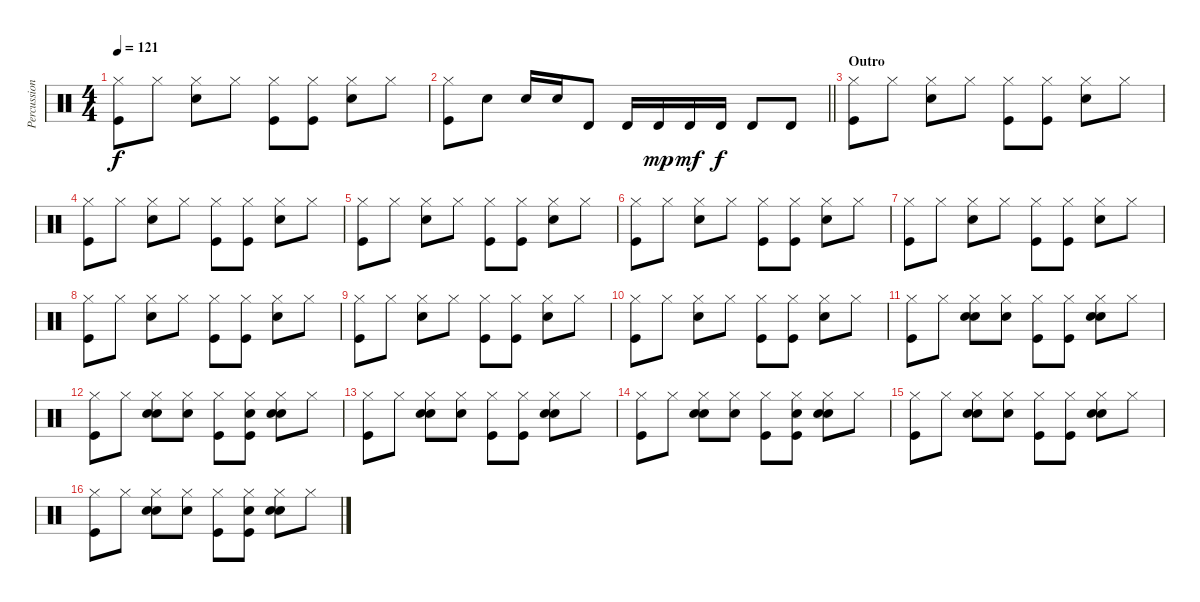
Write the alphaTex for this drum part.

\track ("Percussion" "Percussion") {instrument percussion}
\staff {score}
\articulation defaults
\ts (4 4)
\tempo 121
\clef neutral
\ks c
("Hi-Hat (closed)" "Kick (hit)").8{dy f} "Hi-Hat (closed)".8 ("Hi-Hat (closed)" "Snare (hit) 2").8 "Hi-Hat (closed)".8 ("Hi-Hat (closed)" "Kick (hit)").8 ("Hi-Hat (closed)" "Kick (hit)").8 ("Hi-Hat (closed)" "Snare (hit) 2").8 "Hi-Hat (closed)".8 |
\barLineRight lightlight
("Hi-Hat (closed)" "Kick (hit)").8 "Snare (hit) 2".8 "Snare (hit) 2".16 "Snare (hit) 2".16 "Timbale high (hit)".8 "Timbale high (hit)".16 "Timbale high (hit)".16{dy mp} "Timbale high (hit)".16{dy mf} "Timbale high (hit)".16{dy f} "Timbale high (hit)".8 "Timbale high (hit)".8 |
\section ("" "Outro")
("Hi-Hat (closed)" "Kick (hit)").8 "Hi-Hat (closed)".8 ("Hi-Hat (closed)" "Snare (hit) 2").8 "Hi-Hat (closed)".8 ("Hi-Hat (closed)" "Kick (hit)").8 ("Hi-Hat (closed)" "Kick (hit)").8 ("Hi-Hat (closed)" "Snare (hit) 2").8 "Hi-Hat (closed)".8 |
("Hi-Hat (closed)" "Kick (hit)").8 "Hi-Hat (closed)".8 ("Hi-Hat (closed)" "Snare (hit) 2").8 "Hi-Hat (closed)".8 ("Hi-Hat (closed)" "Kick (hit)").8 ("Hi-Hat (closed)" "Kick (hit)").8 ("Hi-Hat (closed)" "Snare (hit) 2").8 "Hi-Hat (closed)".8 |
("Hi-Hat (closed)" "Kick (hit)").8 "Hi-Hat (closed)".8 ("Hi-Hat (closed)" "Snare (hit) 2").8 "Hi-Hat (closed)".8 ("Hi-Hat (closed)" "Kick (hit)").8 ("Hi-Hat (closed)" "Kick (hit)").8 ("Hi-Hat (closed)" "Snare (hit) 2").8 "Hi-Hat (closed)".8 |
("Hi-Hat (closed)" "Kick (hit)").8 "Hi-Hat (closed)".8 ("Hi-Hat (closed)" "Snare (hit) 2").8 "Hi-Hat (closed)".8 ("Hi-Hat (closed)" "Kick (hit)").8 ("Hi-Hat (closed)" "Kick (hit)").8 ("Hi-Hat (closed)" "Snare (hit) 2").8 "Hi-Hat (closed)".8 |
("Hi-Hat (closed)" "Kick (hit)").8 "Hi-Hat (closed)".8 ("Hi-Hat (closed)" "Snare (hit) 2").8 "Hi-Hat (closed)".8 ("Hi-Hat (closed)" "Kick (hit)").8 ("Hi-Hat (closed)" "Kick (hit)").8 ("Hi-Hat (closed)" "Snare (hit) 2").8 "Hi-Hat (closed)".8 |
("Hi-Hat (closed)" "Kick (hit)").8 "Hi-Hat (closed)".8 ("Hi-Hat (closed)" "Snare (hit) 2").8 "Hi-Hat (closed)".8 ("Hi-Hat (closed)" "Kick (hit)").8 ("Hi-Hat (closed)" "Kick (hit)").8 ("Hi-Hat (closed)" "Snare (hit) 2").8 "Hi-Hat (closed)".8 |
("Hi-Hat (closed)" "Kick (hit)").8 "Hi-Hat (closed)".8 ("Hi-Hat (closed)" "Snare (hit) 2").8 "Hi-Hat (closed)".8 ("Hi-Hat (closed)" "Kick (hit)").8 ("Hi-Hat (closed)" "Kick (hit)").8 ("Hi-Hat (closed)" "Snare (hit) 2").8 "Hi-Hat (closed)".8 |
("Hi-Hat (closed)" "Kick (hit)").8 "Hi-Hat (closed)".8 ("Hi-Hat (closed)" "Snare (hit) 2").8 "Hi-Hat (closed)".8 ("Hi-Hat (closed)" "Kick (hit)").8 ("Hi-Hat (closed)" "Kick (hit)").8 ("Hi-Hat (closed)" "Snare (hit) 2").8 "Hi-Hat (closed)".8 |
("Hi-Hat (closed)" "Kick (hit)").8 "Hi-Hat (closed)".8 ("Hand Clap (hit)" "Hi-Hat (closed)" "Snare (hit) 2").8 ("Hand Clap (hit)" "Hi-Hat (closed)").8 ("Hi-Hat (closed)" "Kick (hit)").8 ("Hi-Hat (closed)" "Kick (hit)").8 ("Hand Clap (hit)" "Hi-Hat (closed)" "Snare (hit) 2").8 "Hi-Hat (closed)".8 |
("Hi-Hat (closed)" "Kick (hit)").8 "Hi-Hat (closed)".8 ("Hand Clap (hit)" "Hi-Hat (closed)" "Snare (hit) 2").8 ("Hand Clap (hit)" "Hi-Hat (closed)").8 ("Hi-Hat (closed)" "Kick (hit)").8 ("Hand Clap (hit)" "Hi-Hat (closed)" "Kick (hit)").8 ("Hand Clap (hit)" "Hi-Hat (closed)" "Snare (hit) 2").8 "Hi-Hat (closed)".8 |
("Hi-Hat (closed)" "Kick (hit)").8 "Hi-Hat (closed)".8 ("Hand Clap (hit)" "Hi-Hat (closed)" "Snare (hit) 2").8 ("Hand Clap (hit)" "Hi-Hat (closed)").8 ("Hi-Hat (closed)" "Kick (hit)").8 ("Hi-Hat (closed)" "Kick (hit)").8 ("Hand Clap (hit)" "Hi-Hat (closed)" "Snare (hit) 2").8 "Hi-Hat (closed)".8 |
("Hi-Hat (closed)" "Kick (hit)").8 "Hi-Hat (closed)".8 ("Hand Clap (hit)" "Hi-Hat (closed)" "Snare (hit) 2").8 ("Hand Clap (hit)" "Hi-Hat (closed)").8 ("Hi-Hat (closed)" "Kick (hit)").8 ("Hand Clap (hit)" "Hi-Hat (closed)" "Kick (hit)").8 ("Hand Clap (hit)" "Hi-Hat (closed)" "Snare (hit) 2").8 "Hi-Hat (closed)".8 |
("Hi-Hat (closed)" "Kick (hit)").8{volume 0} "Hi-Hat (closed)".8 ("Hand Clap (hit)" "Hi-Hat (closed)" "Snare (hit) 2").8 ("Hand Clap (hit)" "Hi-Hat (closed)").8 ("Hi-Hat (closed)" "Kick (hit)").8 ("Hi-Hat (closed)" "Kick (hit)").8 ("Hand Clap (hit)" "Hi-Hat (closed)" "Snare (hit) 2").8 "Hi-Hat (closed)".8 |
("Hi-Hat (closed)" "Kick (hit)").8 "Hi-Hat (closed)".8 ("Hand Clap (hit)" "Hi-Hat (closed)" "Snare (hit) 2").8 ("Hand Clap (hit)" "Hi-Hat (closed)").8 ("Hi-Hat (closed)" "Kick (hit)").8 ("Hand Clap (hit)" "Hi-Hat (closed)" "Kick (hit)").8 ("Hand Clap (hit)" "Hi-Hat (closed)" "Snare (hit) 2").8 "Hi-Hat (closed)".8
